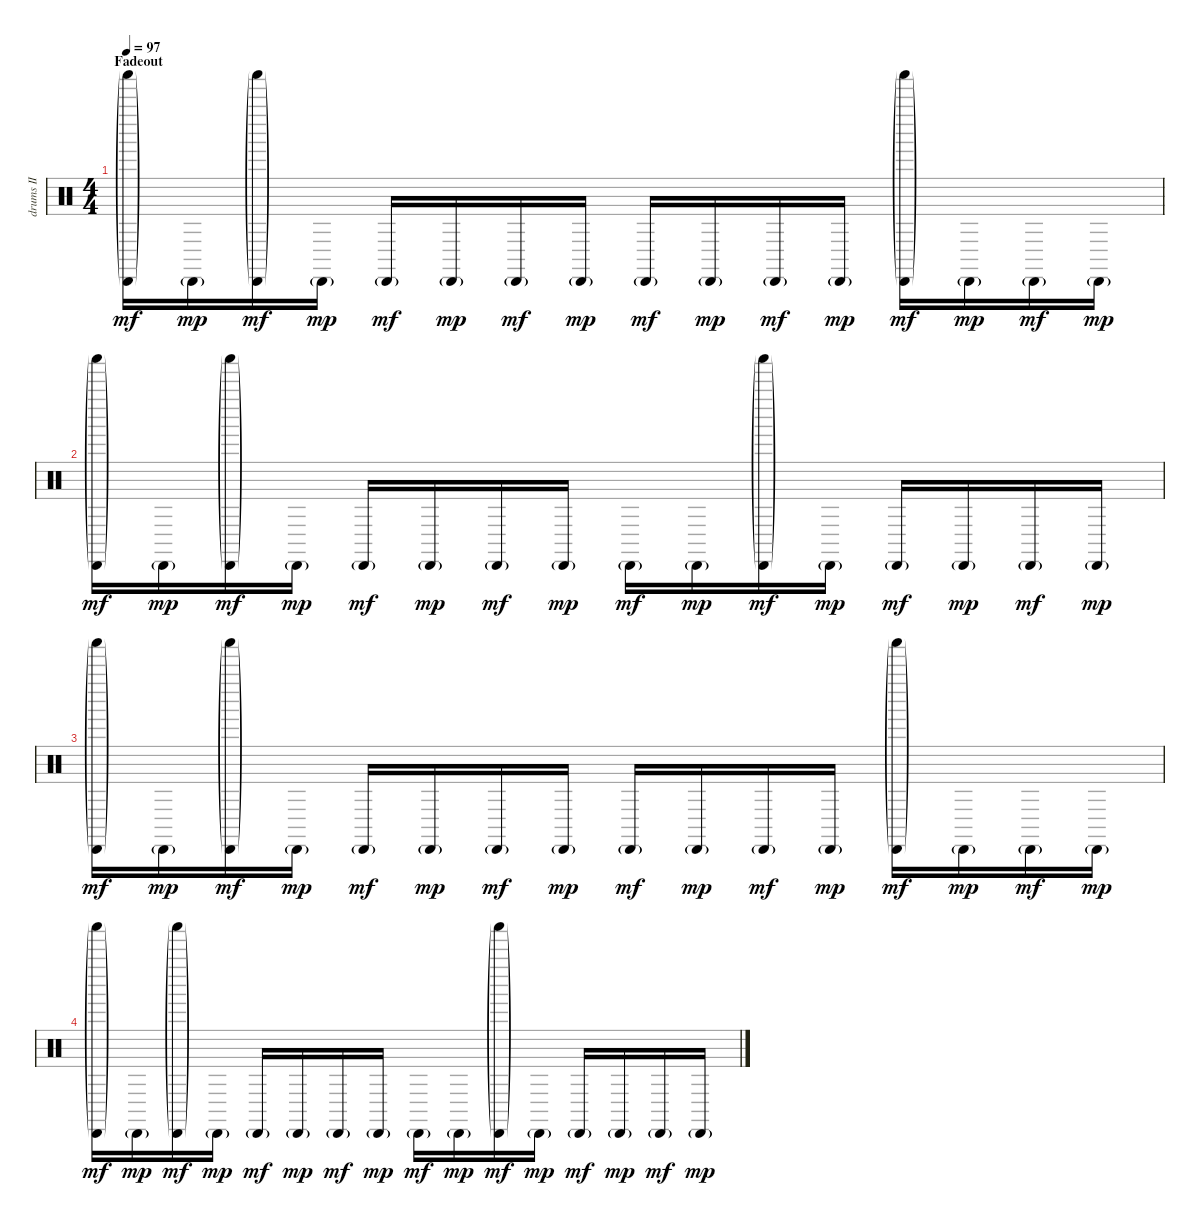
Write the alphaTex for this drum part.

\track ("drums II" "drums II") {instrument percussion}
\staff {score}
\articulation defaults
\ts (4 4)
\section ("" "Fadeout")
\tempo 97
\clef neutral
\ks c
("Shaker (hit)"{g} "Cabasa (hit)"{g}).16{dy mf} "Cabasa (hit)"{g}.16{dy mp} ("Shaker (hit)"{g} "Cabasa (hit)"{g}).16{dy mf} "Cabasa (hit)"{g}.16{dy mp} "Cabasa (hit)"{g}.16{dy mf} "Cabasa (hit)"{g}.16{dy mp} "Cabasa (hit)"{g}.16{dy mf} "Cabasa (hit)"{g}.16{dy mp} "Cabasa (hit)"{g}.16{dy mf} "Cabasa (hit)"{g}.16{dy mp} "Cabasa (hit)"{g}.16{dy mf} "Cabasa (hit)"{g}.16{dy mp} ("Shaker (hit)"{g} "Cabasa (hit)"{g}).16{dy mf} "Cabasa (hit)"{g}.16{dy mp} "Cabasa (hit)"{g}.16{dy mf} "Cabasa (hit)"{g}.16{dy mp} |
("Shaker (hit)"{g} "Cabasa (hit)"{g}).16{dy mf} "Cabasa (hit)"{g}.16{dy mp} ("Shaker (hit)"{g} "Cabasa (hit)"{g}).16{dy mf} "Cabasa (hit)"{g}.16{dy mp} "Cabasa (hit)"{g}.16{dy mf} "Cabasa (hit)"{g}.16{dy mp} "Cabasa (hit)"{g}.16{dy mf} "Cabasa (hit)"{g}.16{dy mp} "Cabasa (hit)"{g}.16{dy mf} "Cabasa (hit)"{g}.16{dy mp} ("Shaker (hit)"{g} "Cabasa (hit)"{g}).16{dy mf} "Cabasa (hit)"{g}.16{dy mp} "Cabasa (hit)"{g}.16{dy mf} "Cabasa (hit)"{g}.16{dy mp} "Cabasa (hit)"{g}.16{dy mf} "Cabasa (hit)"{g}.16{dy mp} |
("Shaker (hit)"{g} "Cabasa (hit)"{g}).16{dy mf} "Cabasa (hit)"{g}.16{dy mp} ("Shaker (hit)"{g} "Cabasa (hit)"{g}).16{dy mf} "Cabasa (hit)"{g}.16{dy mp} "Cabasa (hit)"{g}.16{dy mf} "Cabasa (hit)"{g}.16{dy mp} "Cabasa (hit)"{g}.16{dy mf} "Cabasa (hit)"{g}.16{dy mp} "Cabasa (hit)"{g}.16{dy mf} "Cabasa (hit)"{g}.16{dy mp} "Cabasa (hit)"{g}.16{dy mf} "Cabasa (hit)"{g}.16{dy mp} ("Shaker (hit)"{g} "Cabasa (hit)"{g}).16{dy mf} "Cabasa (hit)"{g}.16{dy mp} "Cabasa (hit)"{g}.16{dy mf} "Cabasa (hit)"{g}.16{dy mp} |
("Shaker (hit)"{g} "Cabasa (hit)"{g}).16{dy mf} "Cabasa (hit)"{g}.16{dy mp} ("Shaker (hit)"{g} "Cabasa (hit)"{g}).16{dy mf} "Cabasa (hit)"{g}.16{dy mp} "Cabasa (hit)"{g}.16{dy mf} "Cabasa (hit)"{g}.16{dy mp} "Cabasa (hit)"{g}.16{dy mf} "Cabasa (hit)"{g}.16{dy mp} "Cabasa (hit)"{g}.16{dy mf} "Cabasa (hit)"{g}.16{dy mp} ("Shaker (hit)"{g} "Cabasa (hit)"{g}).16{dy mf} "Cabasa (hit)"{g}.16{dy mp} "Cabasa (hit)"{g}.16{dy mf} "Cabasa (hit)"{g}.16{dy mp} "Cabasa (hit)"{g}.16{dy mf} "Cabasa (hit)"{g}.16{dy mp}
